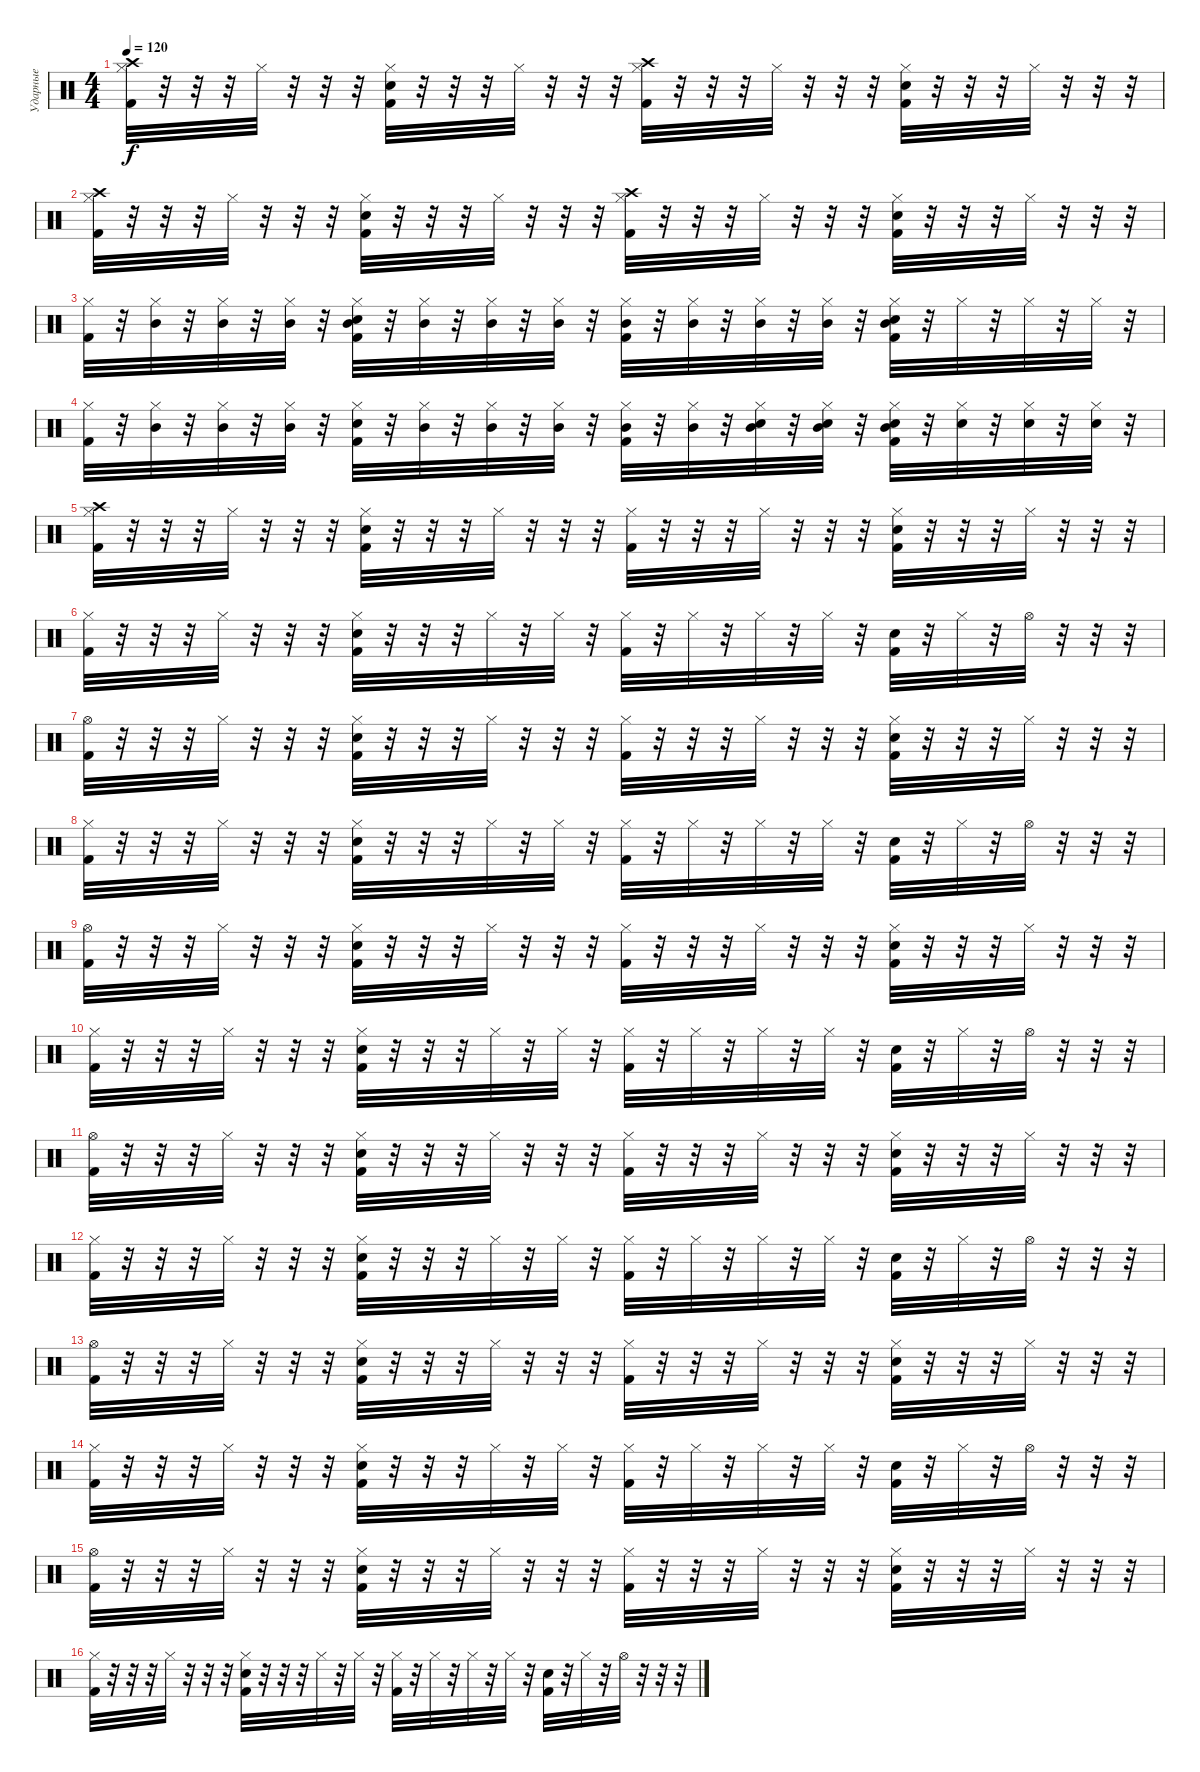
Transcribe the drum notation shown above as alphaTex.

\track ("Ударные" "Ударные") {instrument percussion}
\staff {score}
\articulation defaults
\ts (4 4)
\tempo 120
\clef neutral
\ks c
("Crash high (hit)" "Hi-Hat (closed)" "Kick (hit) 2").32{dy f} r.32 r.32 r.32 "Hi-Hat (closed)".32 r.32 r.32 r.32 ("Hi-Hat (closed)" "Kick (hit) 2" "Snare (hit) 2").32 r.32 r.32 r.32 "Hi-Hat (closed)".32 r.32 r.32 r.32 ("Crash high (hit)" "Hi-Hat (closed)" "Kick (hit) 2").32 r.32 r.32 r.32 "Hi-Hat (closed)".32 r.32 r.32 r.32 ("Snare (hit) 2" "Kick (hit) 2" "Hi-Hat (closed)").32 r.32 r.32 r.32 "Hi-Hat (closed)".32 r.32 r.32 r.32 |
("Crash high (hit)" "Hi-Hat (closed)" "Kick (hit) 2").32 r.32 r.32 r.32 "Hi-Hat (closed)".32 r.32 r.32 r.32 ("Hi-Hat (closed)" "Kick (hit) 2" "Snare (hit) 2").32 r.32 r.32 r.32 "Hi-Hat (closed)".32 r.32 r.32 r.32 ("Crash high (hit)" "Hi-Hat (closed)" "Kick (hit) 2").32 r.32 r.32 r.32 "Hi-Hat (closed)".32 r.32 r.32 r.32 ("Snare (hit) 2" "Kick (hit) 2" "Hi-Hat (closed)").32 r.32 r.32 r.32 "Hi-Hat (closed)".32 r.32 r.32 r.32 |
("Hi-Hat (closed)" "Kick (hit) 2").32 r.32 ("Hi-Hat (closed)" "Mid Tom (hit)").32 r.32 ("Hi-Hat (closed)" "Mid Tom (hit)").32 r.32 ("Hi-Hat (closed)" "Mid Tom (hit)").32 r.32 ("Hi-Hat (closed)" "Kick (hit) 2" "Snare (hit) 2" "Mid Tom (hit)").32 r.32 ("Hi-Hat (closed)" "Mid Tom (hit)").32 r.32 ("Hi-Hat (closed)" "Mid Tom (hit)").32 r.32 ("Hi-Hat (closed)" "Mid Tom (hit)").32 r.32 ("Hi-Hat (closed)" "Kick (hit) 2" "Mid Tom (hit)").32 r.32 ("Hi-Hat (closed)" "Mid Tom (hit)").32 r.32 ("Hi-Hat (closed)" "Mid Tom (hit)").32 r.32 ("Hi-Hat (closed)" "Mid Tom (hit)").32 r.32 ("Snare (hit) 2" "Kick (hit) 2" "Hi-Hat (closed)" "Mid Tom (hit)").32 r.32 "Hi-Hat (closed)".32 r.32 "Hi-Hat (closed)".32 r.32 "Hi-Hat (closed)".32 r.32 |
("Hi-Hat (closed)" "Kick (hit) 2").32 r.32 ("Mid Tom (hit)" "Hi-Hat (closed)").32 r.32 ("Mid Tom (hit)" "Hi-Hat (closed)").32 r.32 ("Mid Tom (hit)" "Hi-Hat (closed)").32 r.32 ("Hi-Hat (closed)" "Kick (hit) 2" "Snare (hit) 2").32 r.32 ("Mid Tom (hit)" "Hi-Hat (closed)").32 r.32 ("Mid Tom (hit)" "Hi-Hat (closed)").32 r.32 ("Mid Tom (hit)" "Hi-Hat (closed)").32 r.32 ("Mid Tom (hit)" "Hi-Hat (closed)" "Kick (hit) 2").32 r.32 ("Mid Tom (hit)" "Hi-Hat (closed)").32 r.32 ("Mid Tom (hit)" "Snare (hit) 2" "Hi-Hat (closed)").32 r.32 ("Mid Tom (hit)" "Snare (hit) 2" "Hi-Hat (closed)").32 r.32 ("Mid Tom (hit)" "Snare (hit) 2" "Kick (hit) 2" "Hi-Hat (closed)").32 r.32 ("Snare (hit) 2" "Hi-Hat (closed)").32 r.32 ("Snare (hit) 2" "Hi-Hat (closed)").32 r.32 ("Snare (hit) 2" "Hi-Hat (closed)").32 r.32 |
("Crash high (hit)" "Hi-Hat (closed)" "Kick (hit) 2").32 r.32 r.32 r.32 "Hi-Hat (closed)".32 r.32 r.32 r.32 ("Hi-Hat (closed)" "Kick (hit) 2" "Snare (hit) 2").32 r.32 r.32 r.32 "Hi-Hat (closed)".32 r.32 r.32 r.32 ("Hi-Hat (closed)" "Kick (hit) 2").32 r.32 r.32 r.32 "Hi-Hat (closed)".32 r.32 r.32 r.32 ("Snare (hit) 2" "Kick (hit) 2" "Hi-Hat (closed)").32 r.32 r.32 r.32 "Hi-Hat (closed)".32 r.32 r.32 r.32 |
("Hi-Hat (closed)" "Kick (hit) 2").32 r.32 r.32 r.32 "Hi-Hat (closed)".32 r.32 r.32 r.32 ("Hi-Hat (closed)" "Kick (hit) 2" "Snare (hit) 2").32 r.32 r.32 r.32 "Hi-Hat (closed)".32 r.32 "Hi-Hat (closed)".32 r.32 ("Hi-Hat (closed)" "Kick (hit) 2").32 r.32 "Hi-Hat (closed)".32 r.32 "Hi-Hat (closed)".32 r.32 "Hi-Hat (closed)".32 r.32 ("Snare (hit) 2" "Kick (hit) 2").32 r.32 "Hi-Hat (closed)".32 r.32 "Hi-Hat (open)".32 r.32 r.32 r.32 |
("Hi-Hat (open)" "Kick (hit) 2").32 r.32 r.32 r.32 "Hi-Hat (closed)".32 r.32 r.32 r.32 ("Hi-Hat (closed)" "Kick (hit) 2" "Snare (hit) 2").32 r.32 r.32 r.32 "Hi-Hat (closed)".32 r.32 r.32 r.32 ("Hi-Hat (closed)" "Kick (hit) 2").32 r.32 r.32 r.32 "Hi-Hat (closed)".32 r.32 r.32 r.32 ("Snare (hit) 2" "Kick (hit) 2" "Hi-Hat (closed)").32 r.32 r.32 r.32 "Hi-Hat (closed)".32 r.32 r.32 r.32 |
("Hi-Hat (closed)" "Kick (hit) 2").32 r.32 r.32 r.32 "Hi-Hat (closed)".32 r.32 r.32 r.32 ("Hi-Hat (closed)" "Kick (hit) 2" "Snare (hit) 2").32 r.32 r.32 r.32 "Hi-Hat (closed)".32 r.32 "Hi-Hat (closed)".32 r.32 ("Hi-Hat (closed)" "Kick (hit) 2").32 r.32 "Hi-Hat (closed)".32 r.32 "Hi-Hat (closed)".32 r.32 "Hi-Hat (closed)".32 r.32 ("Snare (hit) 2" "Kick (hit) 2").32 r.32 "Hi-Hat (closed)".32 r.32 "Hi-Hat (open)".32 r.32 r.32 r.32 |
("Hi-Hat (open)" "Kick (hit) 2").32 r.32 r.32 r.32 "Hi-Hat (closed)".32 r.32 r.32 r.32 ("Hi-Hat (closed)" "Kick (hit) 2" "Snare (hit) 2").32 r.32 r.32 r.32 "Hi-Hat (closed)".32 r.32 r.32 r.32 ("Hi-Hat (closed)" "Kick (hit) 2").32 r.32 r.32 r.32 "Hi-Hat (closed)".32 r.32 r.32 r.32 ("Snare (hit) 2" "Kick (hit) 2" "Hi-Hat (closed)").32 r.32 r.32 r.32 "Hi-Hat (closed)".32 r.32 r.32 r.32 |
("Hi-Hat (closed)" "Kick (hit) 2").32 r.32 r.32 r.32 "Hi-Hat (closed)".32 r.32 r.32 r.32 ("Hi-Hat (closed)" "Kick (hit) 2" "Snare (hit) 2").32 r.32 r.32 r.32 "Hi-Hat (closed)".32 r.32 "Hi-Hat (closed)".32 r.32 ("Hi-Hat (closed)" "Kick (hit) 2").32 r.32 "Hi-Hat (closed)".32 r.32 "Hi-Hat (closed)".32 r.32 "Hi-Hat (closed)".32 r.32 ("Snare (hit) 2" "Kick (hit) 2").32 r.32 "Hi-Hat (closed)".32 r.32 "Hi-Hat (open)".32 r.32 r.32 r.32 |
("Hi-Hat (open)" "Kick (hit) 2").32 r.32 r.32 r.32 "Hi-Hat (closed)".32 r.32 r.32 r.32 ("Hi-Hat (closed)" "Kick (hit) 2" "Snare (hit) 2").32 r.32 r.32 r.32 "Hi-Hat (closed)".32 r.32 r.32 r.32 ("Hi-Hat (closed)" "Kick (hit) 2").32 r.32 r.32 r.32 "Hi-Hat (closed)".32 r.32 r.32 r.32 ("Snare (hit) 2" "Kick (hit) 2" "Hi-Hat (closed)").32 r.32 r.32 r.32 "Hi-Hat (closed)".32 r.32 r.32 r.32 |
("Hi-Hat (closed)" "Kick (hit) 2").32 r.32 r.32 r.32 "Hi-Hat (closed)".32 r.32 r.32 r.32 ("Hi-Hat (closed)" "Kick (hit) 2" "Snare (hit) 2").32 r.32 r.32 r.32 "Hi-Hat (closed)".32 r.32 "Hi-Hat (closed)".32 r.32 ("Hi-Hat (closed)" "Kick (hit) 2").32 r.32 "Hi-Hat (closed)".32 r.32 "Hi-Hat (closed)".32 r.32 "Hi-Hat (closed)".32 r.32 ("Snare (hit) 2" "Kick (hit) 2").32 r.32 "Hi-Hat (closed)".32 r.32 "Hi-Hat (open)".32 r.32 r.32 r.32 |
("Hi-Hat (open)" "Kick (hit) 2").32 r.32 r.32 r.32 "Hi-Hat (closed)".32 r.32 r.32 r.32 ("Hi-Hat (closed)" "Kick (hit) 2" "Snare (hit) 2").32 r.32 r.32 r.32 "Hi-Hat (closed)".32 r.32 r.32 r.32 ("Hi-Hat (closed)" "Kick (hit) 2").32 r.32 r.32 r.32 "Hi-Hat (closed)".32 r.32 r.32 r.32 ("Snare (hit) 2" "Kick (hit) 2" "Hi-Hat (closed)").32 r.32 r.32 r.32 "Hi-Hat (closed)".32 r.32 r.32 r.32 |
("Hi-Hat (closed)" "Kick (hit) 2").32 r.32 r.32 r.32 "Hi-Hat (closed)".32 r.32 r.32 r.32 ("Hi-Hat (closed)" "Kick (hit) 2" "Snare (hit) 2").32 r.32 r.32 r.32 "Hi-Hat (closed)".32 r.32 "Hi-Hat (closed)".32 r.32 ("Hi-Hat (closed)" "Kick (hit) 2").32 r.32 "Hi-Hat (closed)".32 r.32 "Hi-Hat (closed)".32 r.32 "Hi-Hat (closed)".32 r.32 ("Snare (hit) 2" "Kick (hit) 2").32 r.32 "Hi-Hat (closed)".32 r.32 "Hi-Hat (open)".32 r.32 r.32 r.32 |
("Hi-Hat (open)" "Kick (hit) 2").32 r.32 r.32 r.32 "Hi-Hat (closed)".32 r.32 r.32 r.32 ("Hi-Hat (closed)" "Kick (hit) 2" "Snare (hit) 2").32 r.32 r.32 r.32 "Hi-Hat (closed)".32 r.32 r.32 r.32 ("Hi-Hat (closed)" "Kick (hit) 2").32 r.32 r.32 r.32 "Hi-Hat (closed)".32 r.32 r.32 r.32 ("Snare (hit) 2" "Kick (hit) 2" "Hi-Hat (closed)").32 r.32 r.32 r.32 "Hi-Hat (closed)".32 r.32 r.32 r.32 |
("Hi-Hat (closed)" "Kick (hit) 2").32 r.32 r.32 r.32 "Hi-Hat (closed)".32 r.32 r.32 r.32 ("Hi-Hat (closed)" "Kick (hit) 2" "Snare (hit) 2").32 r.32 r.32 r.32 "Hi-Hat (closed)".32 r.32 "Hi-Hat (closed)".32 r.32 ("Hi-Hat (closed)" "Kick (hit) 2").32 r.32 "Hi-Hat (closed)".32 r.32 "Hi-Hat (closed)".32 r.32 "Hi-Hat (closed)".32 r.32 ("Snare (hit) 2" "Kick (hit) 2").32 r.32 "Hi-Hat (closed)".32 r.32 "Hi-Hat (open)".32 r.32 r.32 r.32
